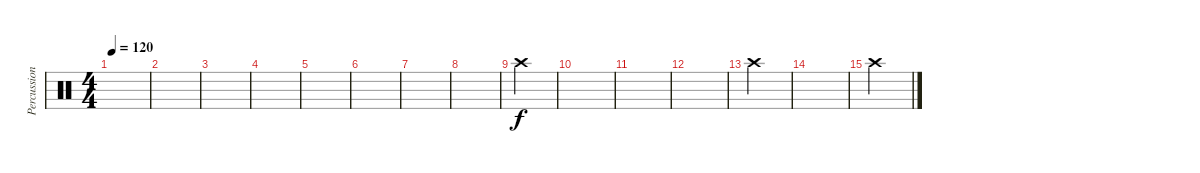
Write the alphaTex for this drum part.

\track ("Percussion" "Percussion") {instrument percussion}
\staff {score}
\articulation defaults
\ts (4 4)
\tempo 120
\clef neutral
\ks c
|
|
|
|
|
|
|
|
"Crash high (hit)".4 |
|
|
|
"Crash high (hit)".4 |
|
"Crash high (hit)".4
